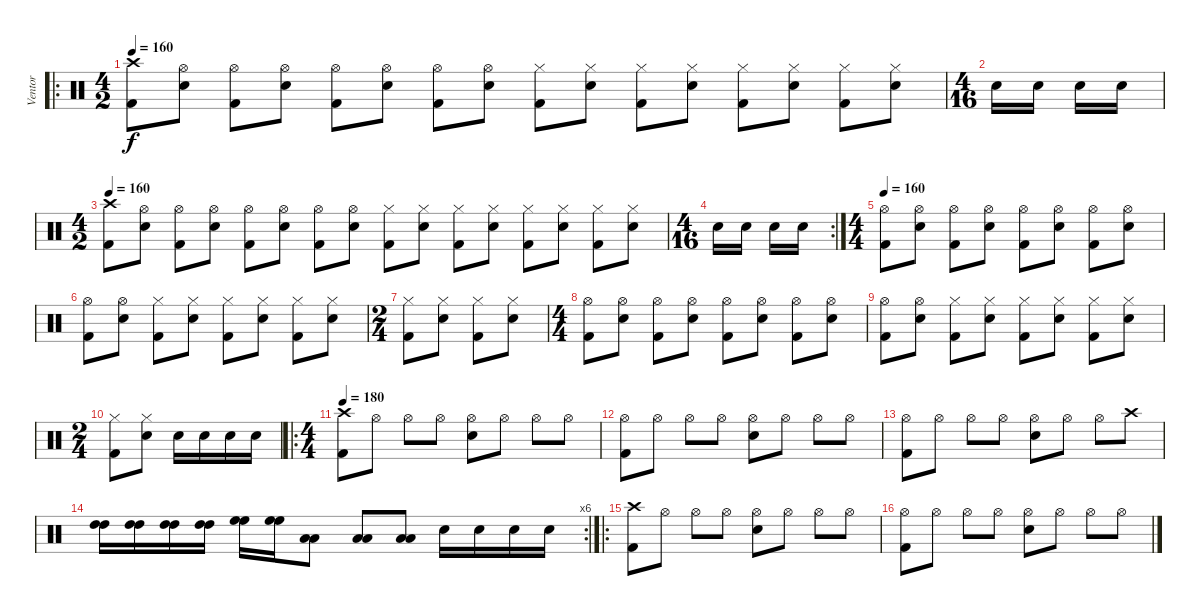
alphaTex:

\track ("Ventor" "Ventor") {instrument percussion}
\staff {score}
\articulation defaults
\ro
\ts (4 2)
\tempo 160
\clef neutral
\ks c
("Kick (hit) 2" "Crash high (hit)").8{dy f} ("Snare (hit) 2" "Hi-Hat (open)").8 ("Kick (hit) 2" "Hi-Hat (open)").8 ("Snare (hit) 2" "Hi-Hat (open)").8 ("Kick (hit) 2" "Hi-Hat (open)").8 ("Snare (hit) 2" "Hi-Hat (open)").8 ("Kick (hit) 2" "Hi-Hat (open)").8 ("Snare (hit) 2" "Hi-Hat (open)").8 ("Kick (hit) 2" "Hi-Hat (closed)").8 ("Snare (hit) 2" "Hi-Hat (closed)").8 ("Kick (hit) 2" "Hi-Hat (closed)").8 ("Snare (hit) 2" "Hi-Hat (closed)").8 ("Kick (hit) 2" "Hi-Hat (closed)").8 ("Snare (hit) 2" "Hi-Hat (closed)").8 ("Kick (hit) 2" "Hi-Hat (closed)").8 ("Snare (hit) 2" "Hi-Hat (closed)").8 |
\ts (4 16)
"Snare (hit) 2".16 "Snare (hit) 2".16 "Snare (hit) 2".16 "Snare (hit) 2".16 |
\ts (4 2)
\tempo 150
\tempo 160
("Kick (hit) 2" "Crash high (hit)").8 ("Snare (hit) 2" "Hi-Hat (open)").8 ("Kick (hit) 2" "Hi-Hat (open)").8 ("Snare (hit) 2" "Hi-Hat (open)").8 ("Kick (hit) 2" "Hi-Hat (open)").8 ("Snare (hit) 2" "Hi-Hat (open)").8 ("Kick (hit) 2" "Hi-Hat (open)").8 ("Snare (hit) 2" "Hi-Hat (open)").8 ("Kick (hit) 2" "Hi-Hat (closed)").8 ("Snare (hit) 2" "Hi-Hat (closed)").8 ("Kick (hit) 2" "Hi-Hat (closed)").8 ("Snare (hit) 2" "Hi-Hat (closed)").8 ("Kick (hit) 2" "Hi-Hat (closed)").8 ("Snare (hit) 2" "Hi-Hat (closed)").8 ("Kick (hit) 2" "Hi-Hat (closed)").8 ("Snare (hit) 2" "Hi-Hat (closed)").8 |
\rc 2
\ts (4 16)
"Snare (hit) 2".16 "Snare (hit) 2".16 "Snare (hit) 2".16 "Snare (hit) 2".16 |
\ts (4 4)
\tempo 160
("Kick (hit) 2" "Hi-Hat (open)").8 ("Snare (hit) 2" "Hi-Hat (open)").8 ("Kick (hit) 2" "Hi-Hat (open)").8 ("Snare (hit) 2" "Hi-Hat (open)").8 ("Kick (hit) 2" "Hi-Hat (open)").8 ("Snare (hit) 2" "Hi-Hat (open)").8 ("Kick (hit) 2" "Hi-Hat (open)").8 ("Snare (hit) 2" "Hi-Hat (open)").8 |
("Kick (hit) 2" "Hi-Hat (open)").8 ("Snare (hit) 2" "Hi-Hat (open)").8 ("Kick (hit) 2" "Hi-Hat (closed)").8 ("Snare (hit) 2" "Hi-Hat (closed)").8 ("Kick (hit) 2" "Hi-Hat (closed)").8 ("Snare (hit) 2" "Hi-Hat (closed)").8 ("Kick (hit) 2" "Hi-Hat (closed)").8 ("Snare (hit) 2" "Hi-Hat (closed)").8 |
\ts (2 4)
("Kick (hit) 2" "Hi-Hat (closed)").8 ("Snare (hit) 2" "Hi-Hat (closed)").8 ("Kick (hit) 2" "Hi-Hat (closed)").8 ("Snare (hit) 2" "Hi-Hat (closed)").8 |
\ts (4 4)
("Kick (hit) 2" "Hi-Hat (open)").8 ("Snare (hit) 2" "Hi-Hat (open)").8 ("Kick (hit) 2" "Hi-Hat (open)").8 ("Snare (hit) 2" "Hi-Hat (open)").8 ("Kick (hit) 2" "Hi-Hat (open)").8 ("Snare (hit) 2" "Hi-Hat (open)").8 ("Kick (hit) 2" "Hi-Hat (open)").8 ("Snare (hit) 2" "Hi-Hat (open)").8 |
("Kick (hit) 2" "Hi-Hat (open)").8 ("Snare (hit) 2" "Hi-Hat (open)").8 ("Kick (hit) 2" "Hi-Hat (closed)").8 ("Snare (hit) 2" "Hi-Hat (closed)").8 ("Kick (hit) 2" "Hi-Hat (closed)").8 ("Snare (hit) 2" "Hi-Hat (closed)").8 ("Kick (hit) 2" "Hi-Hat (closed)").8 ("Snare (hit) 2" "Hi-Hat (closed)").8 |
\ts (2 4)
("Kick (hit) 2" "Hi-Hat (closed)").8 ("Snare (hit) 2" "Hi-Hat (closed)").8 "Snare (hit) 2".16 "Snare (hit) 2".16 "Snare (hit) 2".16 "Snare (hit) 2".16 |
\ro
\ts (4 4)
\tempo 180
("Kick (hit) 2" "Crash high (hit)").8 "Hi-Hat (open)".8 "Hi-Hat (open)".8 "Hi-Hat (open)".8 ("Snare (hit) 2" "Hi-Hat (open)").8 "Hi-Hat (open)".8 "Hi-Hat (open)".8 "Hi-Hat (open)".8 |
("Kick (hit) 2" "Hi-Hat (open)").8 "Hi-Hat (open)".8 "Hi-Hat (open)".8 "Hi-Hat (open)".8 ("Snare (hit) 2" "Hi-Hat (open)").8 "Hi-Hat (open)".8 "Hi-Hat (open)".8 "Hi-Hat (open)".8 |
("Kick (hit) 2" "Hi-Hat (open)").8 "Hi-Hat (open)".8 "Hi-Hat (open)".8 "Hi-Hat (open)".8 ("Snare (hit) 2" "Hi-Hat (open)").8 "Hi-Hat (open)".8 "Hi-Hat (open)".8 "Crash high (hit)".8 |
\rc 6
("High Tom (hit)" "High Tom (hit)").16 ("High Tom (hit)" "High Tom (hit)").16 ("High Tom (hit)" "High Tom (hit)").16 ("High Tom (hit)" "High Tom (hit)").16 ("High Floor Tom (hit)" "High Floor Tom (hit)").16 ("High Floor Tom (hit)" "High Floor Tom (hit)").16 ("Low Floor Tom (hit)" "Low Floor Tom (hit)").8 ("Low Tom (hit)" "Low Tom (hit)").8 ("Low Tom (hit)" "Low Tom (hit)").8 "Snare (hit) 2".16 "Snare (hit) 2".16 "Snare (hit) 2".16 "Snare (hit) 2".16 |
\ro
("Kick (hit) 2" "Crash high (hit)").8 "Hi-Hat (open)".8 "Hi-Hat (open)".8 "Hi-Hat (open)".8 ("Snare (hit) 2" "Hi-Hat (open)").8 "Hi-Hat (open)".8 "Hi-Hat (open)".8 "Hi-Hat (open)".8 |
("Kick (hit) 2" "Hi-Hat (open)").8 "Hi-Hat (open)".8 "Hi-Hat (open)".8 "Hi-Hat (open)".8 ("Snare (hit) 2" "Hi-Hat (open)").8 "Hi-Hat (open)".8 "Hi-Hat (open)".8 "Hi-Hat (open)".8
